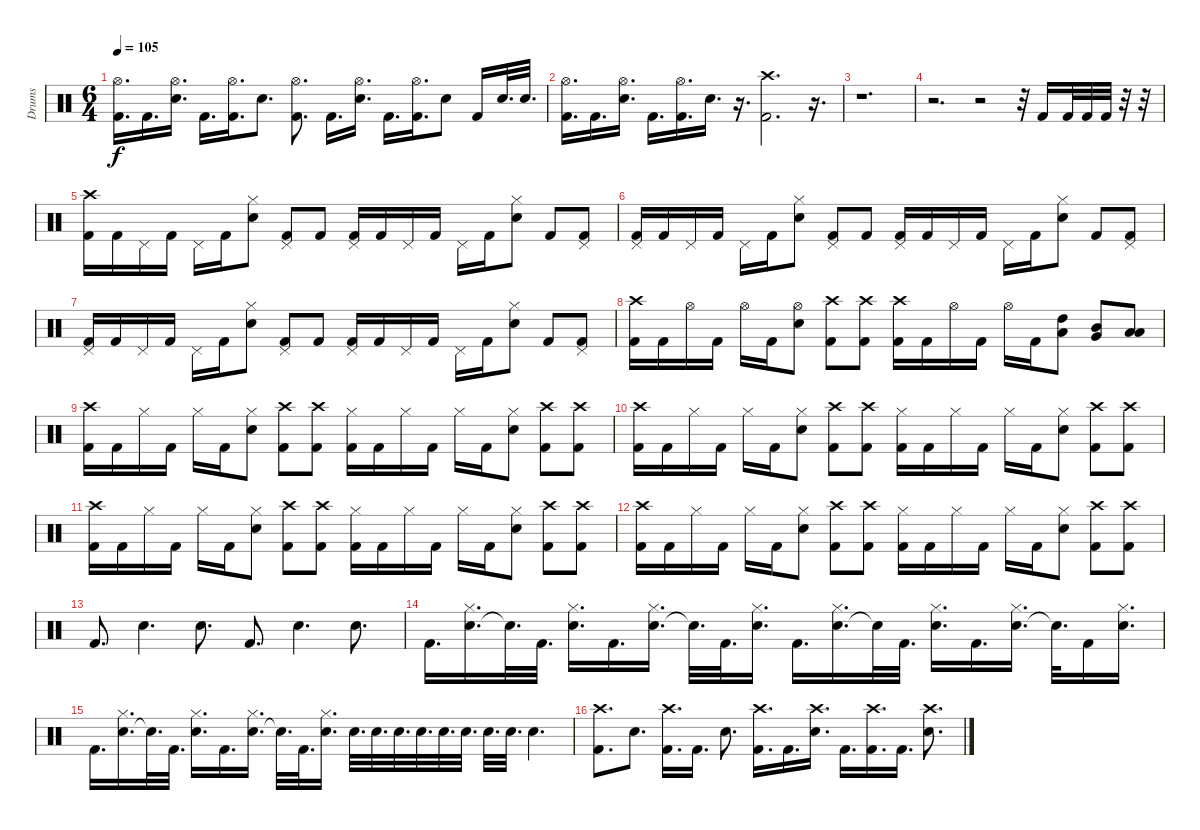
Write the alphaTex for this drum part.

\track ("Drums" "Drums") {instrument percussion}
\staff {score}
\articulation defaults
\ts (6 4)
\tempo 105
\clef neutral
\ks c
("Kick (hit) 2" "Hi-Hat (open)").16{d dy f} "Kick (hit) 2".16{d} ("Snare (hit) 2" "Hi-Hat (open)").16{d} "Kick (hit) 2".16{d} ("Kick (hit) 2" "Hi-Hat (open)").16{d} "Snare (hit) 2".8{d} ("Kick (hit) 2" "Hi-Hat (open)").8{d} "Kick (hit) 2".16{d} ("Snare (hit) 2" "Hi-Hat (open)").16{d} "Kick (hit) 2".16{d} ("Kick (hit) 2" "Hi-Hat (open)").16{d} "Snare (hit) 2".8 "Kick (hit) 2".16 "Snare (hit) 2".32{d} "Snare (hit) 2".32{d} |
("Kick (hit) 2" "Hi-Hat (open)").16{d} "Kick (hit) 2".16{d} ("Snare (hit) 2" "Hi-Hat (open)").16{d} "Kick (hit) 2".16{d} ("Kick (hit) 2" "Hi-Hat (open)").16{d} "Snare (hit) 2".16{d} r.16{d} ("Kick (hit) 2" "Crash high (hit)").2{d} r.16{d} |
r.1{d} |
r.2{d} r.2 r.32 "Kick (hit) 2".16 "Kick (hit) 2".32 "Kick (hit) 2".32 "Kick (hit) 2".32 r.32 r.32 |
("Kick (hit) 2" "Crash high (hit)").16 "Kick (hit) 2".16 "Pedal Hi-Hat (hit)".16 "Kick (hit) 2".16 "Pedal Hi-Hat (hit)".16 "Kick (hit) 2".16 ("Snare (hit) 2" "Hi-Hat (closed)").8 ("Kick (hit) 2" "Pedal Hi-Hat (hit)").8 "Kick (hit) 2".8 ("Kick (hit) 2" "Pedal Hi-Hat (hit)").16 "Kick (hit) 2".16 "Pedal Hi-Hat (hit)".16 "Kick (hit) 2".16 "Pedal Hi-Hat (hit)".16 "Kick (hit) 2".16 ("Snare (hit) 2" "Hi-Hat (closed)").8 "Kick (hit) 2".8 ("Kick (hit) 2" "Pedal Hi-Hat (hit)").8 |
("Kick (hit) 2" "Pedal Hi-Hat (hit)").16 "Kick (hit) 2".16 "Pedal Hi-Hat (hit)".16 "Kick (hit) 2".16 "Pedal Hi-Hat (hit)".16 "Kick (hit) 2".16 ("Snare (hit) 2" "Hi-Hat (closed)").8 ("Kick (hit) 2" "Pedal Hi-Hat (hit)").8 "Kick (hit) 2".8 ("Kick (hit) 2" "Pedal Hi-Hat (hit)").16 "Kick (hit) 2".16 "Pedal Hi-Hat (hit)".16 "Kick (hit) 2".16 "Pedal Hi-Hat (hit)".16 "Kick (hit) 2".16 ("Snare (hit) 2" "Hi-Hat (closed)").8 "Kick (hit) 2".8 ("Kick (hit) 2" "Pedal Hi-Hat (hit)").8 |
("Kick (hit) 2" "Pedal Hi-Hat (hit)").16 "Kick (hit) 2".16 "Pedal Hi-Hat (hit)".16 "Kick (hit) 2".16 "Pedal Hi-Hat (hit)".16 "Kick (hit) 2".16 ("Snare (hit) 2" "Hi-Hat (closed)").8 ("Kick (hit) 2" "Pedal Hi-Hat (hit)").8 "Kick (hit) 2".8 ("Kick (hit) 2" "Pedal Hi-Hat (hit)").16 "Kick (hit) 2".16 "Pedal Hi-Hat (hit)".16 "Kick (hit) 2".16 "Pedal Hi-Hat (hit)".16 "Kick (hit) 2".16 ("Snare (hit) 2" "Hi-Hat (closed)").8 "Kick (hit) 2".8 ("Kick (hit) 2" "Pedal Hi-Hat (hit)").8 |
("Kick (hit) 2" "Crash high (hit)").16 "Kick (hit) 2".16 "Hi-Hat (open)".16 "Kick (hit) 2".16 "Hi-Hat (open)".16 "Kick (hit) 2".16 ("Snare (hit) 2" "Hi-Hat (open)").8 ("Kick (hit) 2" "Crash high (hit)").8 ("Kick (hit) 2" "Crash high (hit)").8 ("Kick (hit) 2" "Crash high (hit)").16 "Kick (hit) 2".16 "Hi-Hat (open)".16 "Kick (hit) 2".16 "Hi-Hat (open)".16 "Kick (hit) 2".16 ("High Tom (hit)" "Low Tom (hit)").8 ("Mid Tom (hit)" "Very Low Tom (hit)").8 ("Low Tom (hit)" "Low Floor Tom (hit)").8 |
("Kick (hit) 2" "Crash high (hit)").16 "Kick (hit) 2".16 "Hi-Hat (closed)".16 "Kick (hit) 2".16 "Hi-Hat (closed)".16 "Kick (hit) 2".16 ("Snare (hit) 2" "Hi-Hat (closed)").8 ("Kick (hit) 2" "Crash high (hit)").8 ("Kick (hit) 2" "Crash high (hit)").8 ("Kick (hit) 2" "Hi-Hat (closed)").16 "Kick (hit) 2".16 "Hi-Hat (closed)".16 "Kick (hit) 2".16 "Hi-Hat (closed)".16 "Kick (hit) 2".16 ("Snare (hit) 2" "Hi-Hat (closed)").8 ("Kick (hit) 2" "Crash high (hit)").8 ("Kick (hit) 2" "Crash high (hit)").8 |
("Kick (hit) 2" "Crash high (hit)").16 "Kick (hit) 2".16 "Hi-Hat (closed)".16 "Kick (hit) 2".16 "Hi-Hat (closed)".16 "Kick (hit) 2".16 ("Snare (hit) 2" "Hi-Hat (closed)").8 ("Kick (hit) 2" "Crash high (hit)").8 ("Kick (hit) 2" "Crash high (hit)").8 ("Kick (hit) 2" "Hi-Hat (closed)").16 "Kick (hit) 2".16 "Hi-Hat (closed)".16 "Kick (hit) 2".16 "Hi-Hat (closed)".16 "Kick (hit) 2".16 ("Snare (hit) 2" "Hi-Hat (closed)").8 ("Kick (hit) 2" "Crash high (hit)").8 ("Kick (hit) 2" "Crash high (hit)").8 |
("Kick (hit) 2" "Crash high (hit)").16 "Kick (hit) 2".16 "Hi-Hat (closed)".16 "Kick (hit) 2".16 "Hi-Hat (closed)".16 "Kick (hit) 2".16 ("Snare (hit) 2" "Hi-Hat (closed)").8 ("Kick (hit) 2" "Crash high (hit)").8 ("Kick (hit) 2" "Crash high (hit)").8 ("Kick (hit) 2" "Hi-Hat (closed)").16 "Kick (hit) 2".16 "Hi-Hat (closed)".16 "Kick (hit) 2".16 "Hi-Hat (closed)".16 "Kick (hit) 2".16 ("Snare (hit) 2" "Hi-Hat (closed)").8 ("Kick (hit) 2" "Crash high (hit)").8 ("Kick (hit) 2" "Crash high (hit)").8 |
("Kick (hit) 2" "Crash high (hit)").16 "Kick (hit) 2".16 "Hi-Hat (closed)".16 "Kick (hit) 2".16 "Hi-Hat (closed)".16 "Kick (hit) 2".16 ("Snare (hit) 2" "Hi-Hat (closed)").8 ("Kick (hit) 2" "Crash high (hit)").8 ("Kick (hit) 2" "Crash high (hit)").8 ("Kick (hit) 2" "Hi-Hat (closed)").16 "Kick (hit) 2".16 "Hi-Hat (closed)".16 "Kick (hit) 2".16 "Hi-Hat (closed)".16 "Kick (hit) 2".16 ("Snare (hit) 2" "Hi-Hat (closed)").8 ("Kick (hit) 2" "Crash high (hit)").8 ("Kick (hit) 2" "Crash high (hit)").8 |
"Kick (hit) 2".8{d} "Snare (hit) 2".4{d} "Snare (hit) 2".8{d} "Kick (hit) 2".8{d} "Snare (hit) 2".4{d} "Snare (hit) 2".8{d} |
"Kick (hit) 2".16{d} ("Snare (hit) 2" "Hi-Hat (closed)").16{d} "Snare (hit) 2"{t}.32{d} "Kick (hit) 2".32{d} ("Snare (hit) 2" "Hi-Hat (closed)").16{d} "Kick (hit) 2".16{d} ("Snare (hit) 2" "Hi-Hat (closed)").16{d} "Snare (hit) 2"{t}.32{d} "Kick (hit) 2".32{d} ("Snare (hit) 2" "Hi-Hat (closed)").16{d} "Kick (hit) 2".16{d} ("Snare (hit) 2" "Hi-Hat (closed)").16{d} "Snare (hit) 2"{t}.32 "Kick (hit) 2".32{d} ("Snare (hit) 2" "Hi-Hat (closed)").16{d} "Kick (hit) 2".16{d} ("Snare (hit) 2" "Hi-Hat (closed)").16{d} "Snare (hit) 2"{t}.32{d} "Kick (hit) 2".16 ("Snare (hit) 2" "Hi-Hat (closed)").16{d} |
"Kick (hit) 2".16{d} ("Snare (hit) 2" "Hi-Hat (closed)").16{d} "Snare (hit) 2"{t}.32{d} "Kick (hit) 2".32{d} ("Snare (hit) 2" "Hi-Hat (closed)").16{d} "Kick (hit) 2".16{d} ("Snare (hit) 2" "Hi-Hat (closed)").16{d} "Snare (hit) 2"{t}.32{d} "Kick (hit) 2".32{d} ("Snare (hit) 2" "Hi-Hat (closed)").16{d} "Snare (hit) 2".32{d} "Snare (hit) 2".32{d} "Snare (hit) 2".32{d} "Snare (hit) 2".32{d} "Snare (hit) 2".32{d} "Snare (hit) 2".32{d} "Snare (hit) 2".32{d} "Snare (hit) 2".32{d} "Snare (hit) 2".4{d} |
("Kick (hit) 2" "Crash high (hit)").8{d} "Snare (hit) 2".8{d} ("Kick (hit) 2" "Crash high (hit)").16{d} "Kick (hit) 2".16{d} "Snare (hit) 2".8{d} ("Kick (hit) 2" "Crash high (hit)").16{d} "Kick (hit) 2".16{d} ("Snare (hit) 2" "Crash high (hit)").16{d} "Kick (hit) 2".16{d} ("Kick (hit) 2" "Crash high (hit)").16{d} "Kick (hit) 2".16{d} ("Snare (hit) 2" "Crash high (hit)").8{d}
